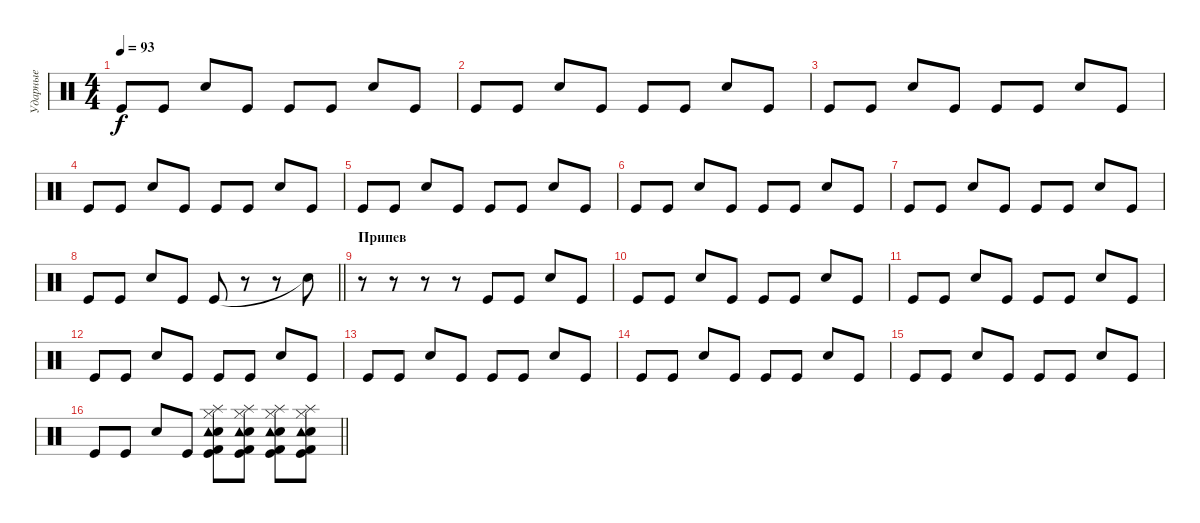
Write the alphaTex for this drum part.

\track ("Ударные" "Ударные") {instrument percussion}
\staff {score}
\articulation defaults
\ts (4 4)
\tempo 93
\clef neutral
\ks c "Kick (hit)".8{dy f} "Kick (hit)".8 "Snare (hit) 2".8 "Kick (hit)".8 "Kick (hit)".8 "Kick (hit)".8 "Snare (hit) 2".8 "Kick (hit)".8
|
"Kick (hit)".8 "Kick (hit)".8 "Snare (hit) 2".8 "Kick (hit)".8 "Kick (hit)".8 "Kick (hit)".8 "Snare (hit) 2".8 "Kick (hit)".8 |
"Kick (hit)".8 "Kick (hit)".8 "Snare (hit) 2".8 "Kick (hit)".8 "Kick (hit)".8 "Kick (hit)".8 "Snare (hit) 2".8 "Kick (hit)".8 |
"Kick (hit)".8 "Kick (hit)".8 "Snare (hit) 2".8 "Kick (hit)".8 "Kick (hit)".8 "Kick (hit)".8 "Snare (hit) 2".8 "Kick (hit)".8 |
"Kick (hit)".8 "Kick (hit)".8 "Snare (hit) 2".8 "Kick (hit)".8 "Kick (hit)".8 "Kick (hit)".8 "Snare (hit) 2".8 "Kick (hit)".8 |
"Kick (hit)".8 "Kick (hit)".8 "Snare (hit) 2".8 "Kick (hit)".8 "Kick (hit)".8 "Kick (hit)".8 "Snare (hit) 2".8 "Kick (hit)".8 |
"Kick (hit)".8 "Kick (hit)".8 "Snare (hit) 2".8 "Kick (hit)".8 "Kick (hit)".8 "Kick (hit)".8 "Snare (hit) 2".8 "Kick (hit)".8 |
\barLineRight lightlight "Kick (hit)".8 "Kick (hit)".8 "Snare (hit) 2".8 "Kick (hit)".8 "Kick (hit)".8
r.8 r.8 "Snare (hit)"{t}.8 |
\section ("" "Припев")
r.8 r.8 r.8 r.8 "Kick (hit)".8 "Kick (hit)".8 "Snare (hit) 2".8 "Kick (hit)".8 |
"Kick (hit)".8 "Kick (hit)".8 "Snare (hit) 2".8 "Kick (hit)".8 "Kick (hit)".8 "Kick (hit)".8 "Snare (hit) 2".8 "Kick (hit)".8 |
"Kick (hit)".8 "Kick (hit)".8 "Snare (hit) 2".8 "Kick (hit)".8 "Kick (hit)".8 "Kick (hit)".8 "Snare (hit) 2".8 "Kick (hit)".8 |
"Kick (hit)".8 "Kick (hit)".8 "Snare (hit) 2".8 "Kick (hit)".8 "Kick (hit)".8 "Kick (hit)".8 "Snare (hit) 2".8 "Kick (hit)".8 |
"Kick (hit)".8 "Kick (hit)".8 "Snare (hit) 2".8 "Kick (hit)".8 "Kick (hit)".8 "Kick (hit)".8 "Snare (hit) 2".8 "Kick (hit)".8 |
"Kick (hit)".8 "Kick (hit)".8 "Snare (hit) 2".8 "Kick (hit)".8 "Kick (hit)".8 "Kick (hit)".8 "Snare (hit) 2".8 "Kick (hit)".8 |
"Kick (hit)".8 "Kick (hit)".8 "Snare (hit) 2".8 "Kick (hit)".8 "Kick (hit)".8 "Kick (hit)".8 "Snare (hit) 2".8 "Kick (hit)".8 |
\barLineRight lightlight "Kick (hit)".8 "Kick (hit)".8 "Snare (hit) 2".8 "Kick (hit)".8
("Kick (hit)" "Snare (hit) 2" "Kick (hit) 2" "Splash (hit)" "Tambourine (hit)" "Hi-Hat (closed)").8 ("Kick (hit)" "Snare (hit) 2" "Kick (hit) 2" "Splash (hit)" "Tambourine (hit)" "Hi-Hat (closed)").8 ("Kick (hit)" "Snare (hit) 2" "Kick (hit) 2" "Splash (hit)" "Tambourine (hit)" "Hi-Hat (closed)").8 ("Kick (hit)" "Snare (hit) 2" "Kick (hit) 2" "Splash (hit)" "Tambourine (hit)" "Hi-Hat (closed)").8
